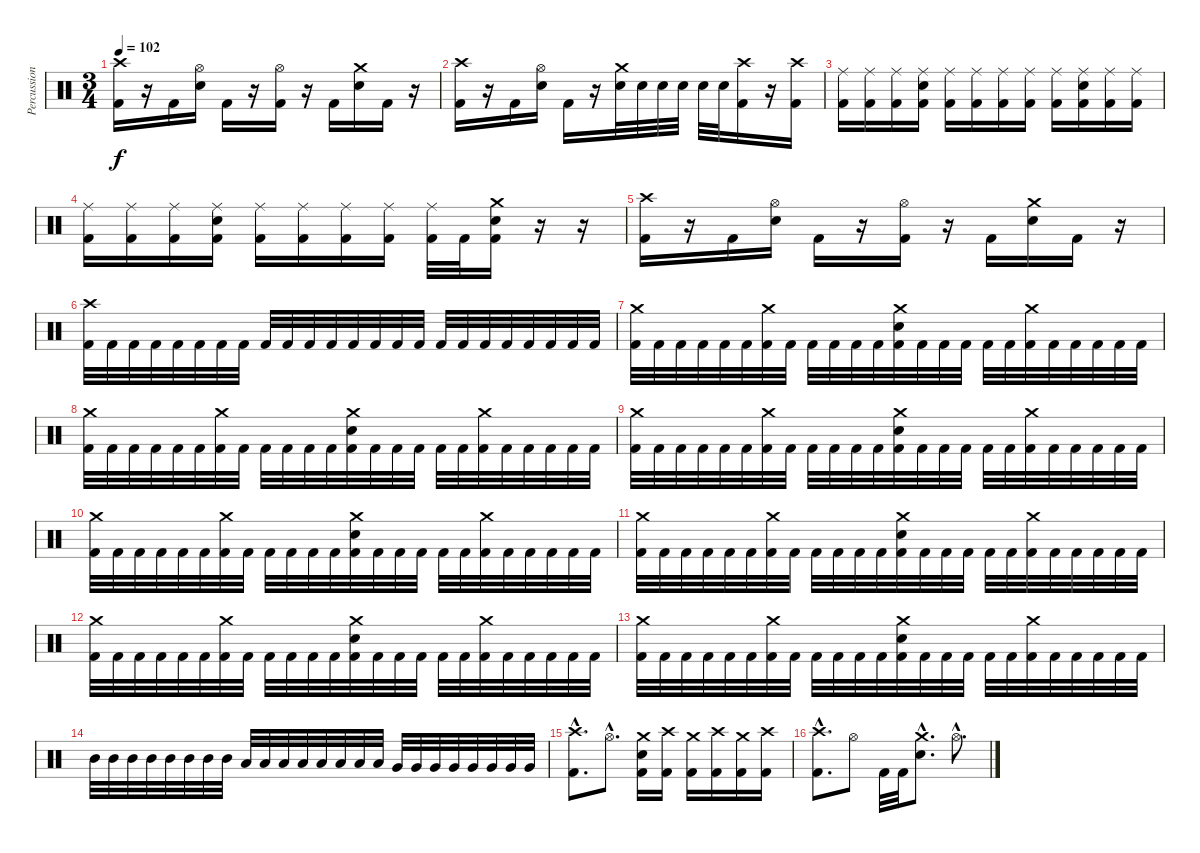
\track ("Percussion" "Percussion") {instrument percussion}
\staff {score}
\articulation defaults
\ts (3 4)
\tempo 102
\clef neutral
\ks c
("Crash high (hit)" "Kick (hit) 2").16{dy f} r.16 "Kick (hit) 2".16 ("Hi-Hat (open)" "Electric Snare (hit)").16 "Kick (hit) 2".16 r.16 ("Hi-Hat (open)" "Kick (hit) 2").16 r.16 "Kick (hit) 2".16 ("Crash medium (hit)" "Electric Snare (hit)").16 "Kick (hit) 2".16 r.16 |
("Crash high (hit)" "Kick (hit) 2").16 r.16 "Kick (hit) 2".16 ("Hi-Hat (open)" "Electric Snare (hit)").16 "Kick (hit) 2".16 r.16 ("Crash medium (hit)" "Electric Snare (hit)").32 "Electric Snare (hit)".32 "Electric Snare (hit)".32 "Electric Snare (hit)".32 "Electric Snare (hit)".32 "Electric Snare (hit)".32 ("Crash high (hit)" "Kick (hit) 2").16 r.16 ("Crash high (hit)" "Kick (hit) 2").16 |
("Ride (middle)" "Kick (hit) 2").16 ("Ride (middle)" "Kick (hit) 2").16 ("Ride (middle)" "Kick (hit) 2").16 ("Ride (middle)" "Electric Snare (hit)" "Kick (hit) 2").16 ("Ride (middle)" "Kick (hit) 2").16 ("Ride (middle)" "Kick (hit) 2").16 ("Ride (middle)" "Kick (hit) 2").16 ("Ride (middle)" "Kick (hit) 2").16 ("Ride (middle)" "Kick (hit) 2").16 ("Ride (middle)" "Electric Snare (hit)" "Kick (hit) 2").16 ("Ride (middle)" "Kick (hit) 2").16 ("Ride (middle)" "Kick (hit) 2").16 |
("Ride (middle)" "Kick (hit) 2").16 ("Ride (middle)" "Kick (hit) 2").16 ("Ride (middle)" "Kick (hit) 2").16 ("Ride (middle)" "Electric Snare (hit)" "Kick (hit) 2").16 ("Ride (middle)" "Kick (hit) 2").16 ("Ride (middle)" "Kick (hit) 2").16 ("Ride (middle)" "Kick (hit) 2").16 ("Ride (middle)" "Kick (hit) 2").16 ("Ride (middle)" "Kick (hit) 2").32 "Kick (hit) 2".32 ("Crash medium (hit)" "Electric Snare (hit)" "Kick (hit) 2").16 r.16 r.16 |
("Crash high (hit)" "Kick (hit) 2").16 r.16 "Kick (hit) 2".16 ("Hi-Hat (open)" "Electric Snare (hit)").16 "Kick (hit) 2".16 r.16 ("Hi-Hat (open)" "Kick (hit) 2").16 r.16 "Kick (hit) 2".16 ("Crash medium (hit)" "Electric Snare (hit)").16 "Kick (hit) 2".16 r.16 |
("Crash high (hit)" "Kick (hit) 2").32 "Kick (hit) 2".32 "Kick (hit) 2".32 "Kick (hit) 2".32 "Kick (hit) 2".32 "Kick (hit) 2".32 "Kick (hit) 2".32 "Kick (hit) 2".32 "Kick (hit) 2".32 "Kick (hit) 2".32 "Kick (hit) 2".32 "Kick (hit) 2".32 "Kick (hit) 2".32 "Kick (hit) 2".32 "Kick (hit) 2".32 "Kick (hit) 2".32 "Kick (hit) 2".32 "Kick (hit) 2".32 "Kick (hit) 2".32 "Kick (hit) 2".32 "Kick (hit) 2".32 "Kick (hit) 2".32 "Kick (hit) 2".32 "Kick (hit) 2".32 |
("Crash medium (hit)" "Kick (hit) 2").32 "Kick (hit) 2".32 "Kick (hit) 2".32 "Kick (hit) 2".32 "Kick (hit) 2".32 "Kick (hit) 2".32 ("Crash medium (hit)" "Kick (hit) 2").32 "Kick (hit) 2".32 "Kick (hit) 2".32 "Kick (hit) 2".32 "Kick (hit) 2".32 "Kick (hit) 2".32 ("Crash medium (hit)" "Electric Snare (hit)" "Kick (hit) 2").32 "Kick (hit) 2".32 "Kick (hit) 2".32 "Kick (hit) 2".32 "Kick (hit) 2".32 "Kick (hit) 2".32 ("Crash medium (hit)" "Kick (hit) 2").32 "Kick (hit) 2".32 "Kick (hit) 2".32 "Kick (hit) 2".32 "Kick (hit) 2".32 "Kick (hit) 2".32 |
("Crash medium (hit)" "Kick (hit) 2").32 "Kick (hit) 2".32 "Kick (hit) 2".32 "Kick (hit) 2".32 "Kick (hit) 2".32 "Kick (hit) 2".32 ("Crash medium (hit)" "Kick (hit) 2").32 "Kick (hit) 2".32 "Kick (hit) 2".32 "Kick (hit) 2".32 "Kick (hit) 2".32 "Kick (hit) 2".32 ("Crash medium (hit)" "Electric Snare (hit)" "Kick (hit) 2").32 "Kick (hit) 2".32 "Kick (hit) 2".32 "Kick (hit) 2".32 "Kick (hit) 2".32 "Kick (hit) 2".32 ("Crash medium (hit)" "Kick (hit) 2").32 "Kick (hit) 2".32 "Kick (hit) 2".32 "Kick (hit) 2".32 "Kick (hit) 2".32 "Kick (hit) 2".32 |
("Crash medium (hit)" "Kick (hit) 2").32 "Kick (hit) 2".32 "Kick (hit) 2".32 "Kick (hit) 2".32 "Kick (hit) 2".32 "Kick (hit) 2".32 ("Crash medium (hit)" "Kick (hit) 2").32 "Kick (hit) 2".32 "Kick (hit) 2".32 "Kick (hit) 2".32 "Kick (hit) 2".32 "Kick (hit) 2".32 ("Crash medium (hit)" "Electric Snare (hit)" "Kick (hit) 2").32 "Kick (hit) 2".32 "Kick (hit) 2".32 "Kick (hit) 2".32 "Kick (hit) 2".32 "Kick (hit) 2".32 ("Crash medium (hit)" "Kick (hit) 2").32 "Kick (hit) 2".32 "Kick (hit) 2".32 "Kick (hit) 2".32 "Kick (hit) 2".32 "Kick (hit) 2".32 |
("Crash medium (hit)" "Kick (hit) 2").32 "Kick (hit) 2".32 "Kick (hit) 2".32 "Kick (hit) 2".32 "Kick (hit) 2".32 "Kick (hit) 2".32 ("Crash medium (hit)" "Kick (hit) 2").32 "Kick (hit) 2".32 "Kick (hit) 2".32 "Kick (hit) 2".32 "Kick (hit) 2".32 "Kick (hit) 2".32 ("Crash medium (hit)" "Electric Snare (hit)" "Kick (hit) 2").32 "Kick (hit) 2".32 "Kick (hit) 2".32 "Kick (hit) 2".32 "Kick (hit) 2".32 "Kick (hit) 2".32 ("Crash medium (hit)" "Kick (hit) 2").32 "Kick (hit) 2".32 "Kick (hit) 2".32 "Kick (hit) 2".32 "Kick (hit) 2".32 "Kick (hit) 2".32 |
("Crash medium (hit)" "Kick (hit) 2").32 "Kick (hit) 2".32 "Kick (hit) 2".32 "Kick (hit) 2".32 "Kick (hit) 2".32 "Kick (hit) 2".32 ("Crash medium (hit)" "Kick (hit) 2").32 "Kick (hit) 2".32 "Kick (hit) 2".32 "Kick (hit) 2".32 "Kick (hit) 2".32 "Kick (hit) 2".32 ("Crash medium (hit)" "Electric Snare (hit)" "Kick (hit) 2").32 "Kick (hit) 2".32 "Kick (hit) 2".32 "Kick (hit) 2".32 "Kick (hit) 2".32 "Kick (hit) 2".32 ("Crash medium (hit)" "Kick (hit) 2").32 "Kick (hit) 2".32 "Kick (hit) 2".32 "Kick (hit) 2".32 "Kick (hit) 2".32 "Kick (hit) 2".32 |
("Crash medium (hit)" "Kick (hit) 2").32 "Kick (hit) 2".32 "Kick (hit) 2".32 "Kick (hit) 2".32 "Kick (hit) 2".32 "Kick (hit) 2".32 ("Crash medium (hit)" "Kick (hit) 2").32 "Kick (hit) 2".32 "Kick (hit) 2".32 "Kick (hit) 2".32 "Kick (hit) 2".32 "Kick (hit) 2".32 ("Crash medium (hit)" "Electric Snare (hit)" "Kick (hit) 2").32 "Kick (hit) 2".32 "Kick (hit) 2".32 "Kick (hit) 2".32 "Kick (hit) 2".32 "Kick (hit) 2".32 ("Crash medium (hit)" "Kick (hit) 2").32 "Kick (hit) 2".32 "Kick (hit) 2".32 "Kick (hit) 2".32 "Kick (hit) 2".32 "Kick (hit) 2".32 |
("Crash medium (hit)" "Kick (hit) 2").32 "Kick (hit) 2".32 "Kick (hit) 2".32 "Kick (hit) 2".32 "Kick (hit) 2".32 "Kick (hit) 2".32 ("Crash medium (hit)" "Kick (hit) 2").32 "Kick (hit) 2".32 "Kick (hit) 2".32 "Kick (hit) 2".32 "Kick (hit) 2".32 "Kick (hit) 2".32 ("Crash medium (hit)" "Electric Snare (hit)" "Kick (hit) 2").32 "Kick (hit) 2".32 "Kick (hit) 2".32 "Kick (hit) 2".32 "Kick (hit) 2".32 "Kick (hit) 2".32 ("Crash medium (hit)" "Kick (hit) 2").32 "Kick (hit) 2".32 "Kick (hit) 2".32 "Kick (hit) 2".32 "Kick (hit) 2".32 "Kick (hit) 2".32 |
"Mid Tom (hit)".32 "Mid Tom (hit)".32 "Mid Tom (hit)".32 "Mid Tom (hit)".32 "Mid Tom (hit)".32 "Mid Tom (hit)".32 "Mid Tom (hit)".32 "Mid Tom (hit)".32 "Low Tom (hit)".32 "Low Tom (hit)".32 "Low Tom (hit)".32 "Low Tom (hit)".32 "Low Tom (hit)".32 "Low Tom (hit)".32 "Low Tom (hit)".32 "Low Tom (hit)".32 "Very Low Tom (hit)".32 "Very Low Tom (hit)".32 "Very Low Tom (hit)".32 "Very Low Tom (hit)".32 "Very Low Tom (hit)".32 "Very Low Tom (hit)".32 "Very Low Tom (hit)".32 "Very Low Tom (hit)".32 |
("Crash high (hit)"{hac} "Kick (hit) 2"{hac}).8{d} "Hi-Hat (open)"{hac}.8{d} ("Crash medium (hit)" "Electric Snare (hit)" "Kick (hit) 2").16 ("Crash high (hit)" "Kick (hit) 2").16 ("Crash medium (hit)" "Kick (hit) 2").16 ("Crash high (hit)" "Kick (hit) 2").16 ("Crash medium (hit)" "Kick (hit) 2").16 ("Crash high (hit)" "Kick (hit) 2").16 |
("Crash high (hit)"{hac} "Kick (hit) 2"{hac}).8{d} "Hi-Hat (open)".8 "Kick (hit) 2".32 "Kick (hit) 2".32 ("Crash medium (hit)"{hac} "Electric Snare (hit)"{hac}).8{d} "Hi-Hat (open)"{hac}.8{d}
